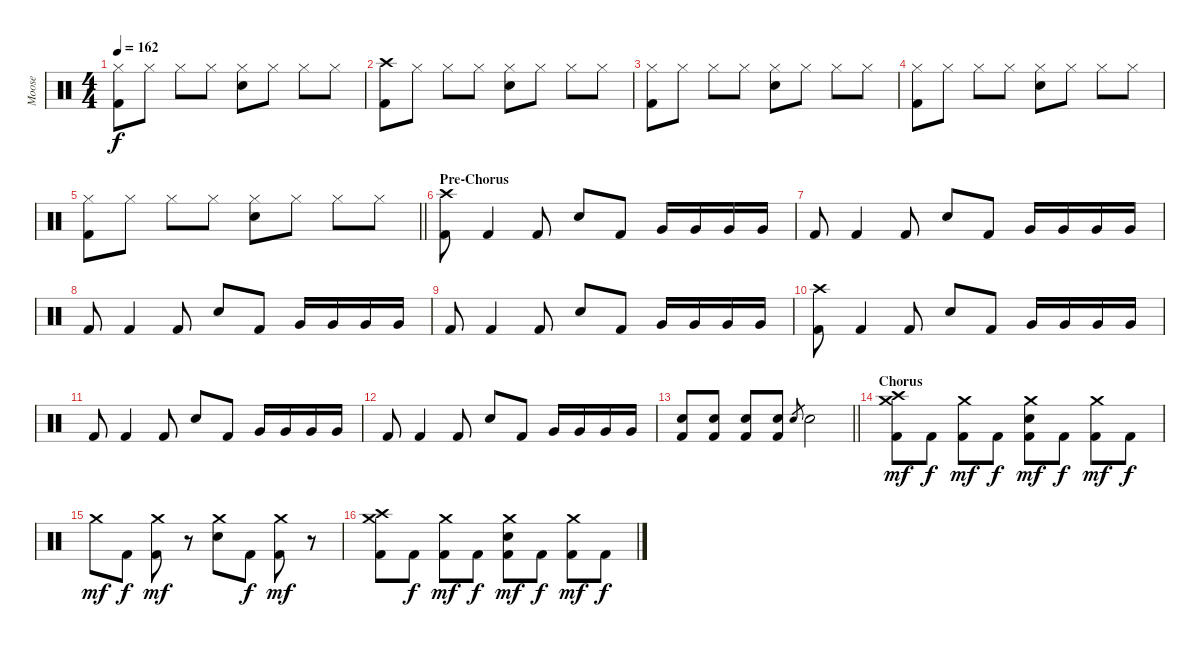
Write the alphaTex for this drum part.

\track ("Moose" "Moose") {instrument percussion}
\staff {score}
\articulation defaults
\ts (4 4)
\tempo 162
\clef neutral
\ks c
("Hi-Hat (closed)" "Kick (hit) 2").8{dy f} "Hi-Hat (closed)".8 "Hi-Hat (closed)".8 "Hi-Hat (closed)".8 ("Hi-Hat (closed)" "Snare (hit) 2").8 "Hi-Hat (closed)".8 "Hi-Hat (closed)".8 "Hi-Hat (closed)".8 |
("Crash high (hit)" "Kick (hit) 2").8 "Hi-Hat (closed)".8 "Hi-Hat (closed)".8 "Hi-Hat (closed)".8 ("Hi-Hat (closed)" "Snare (hit) 2").8 "Hi-Hat (closed)".8 "Hi-Hat (closed)".8 "Hi-Hat (closed)".8 |
("Hi-Hat (closed)" "Kick (hit) 2").8 "Hi-Hat (closed)".8 "Hi-Hat (closed)".8 "Hi-Hat (closed)".8 ("Hi-Hat (closed)" "Snare (hit) 2").8 "Hi-Hat (closed)".8 "Hi-Hat (closed)".8 "Hi-Hat (closed)".8 |
("Hi-Hat (closed)" "Kick (hit) 2").8 "Hi-Hat (closed)".8 "Hi-Hat (closed)".8 "Hi-Hat (closed)".8 ("Hi-Hat (closed)" "Snare (hit) 2").8 "Hi-Hat (closed)".8 "Hi-Hat (closed)".8 "Hi-Hat (closed)".8 |
\barLineRight lightlight
("Hi-Hat (closed)" "Kick (hit) 2").8 "Hi-Hat (closed)".8 "Hi-Hat (closed)".8 "Hi-Hat (closed)".8 ("Hi-Hat (closed)" "Snare (hit) 2").8 "Hi-Hat (closed)".8 "Hi-Hat (closed)".8 "Hi-Hat (closed)".8 |
\section ("" "Pre-Chorus")
("Crash high (hit)" "Kick (hit) 2").8 "Kick (hit) 2".4 "Kick (hit) 2".8 "Snare (hit) 2".8 "Kick (hit) 2".8 "Very Low Tom (hit)".16 "Very Low Tom (hit)".16 "Very Low Tom (hit)".16 "Very Low Tom (hit)".16 |
"Kick (hit) 2".8 "Kick (hit) 2".4 "Kick (hit) 2".8 "Snare (hit) 2".8 "Kick (hit) 2".8 "Very Low Tom (hit)".16 "Very Low Tom (hit)".16 "Very Low Tom (hit)".16 "Very Low Tom (hit)".16 |
"Kick (hit) 2".8 "Kick (hit) 2".4 "Kick (hit) 2".8 "Snare (hit) 2".8 "Kick (hit) 2".8 "Very Low Tom (hit)".16 "Very Low Tom (hit)".16 "Very Low Tom (hit)".16 "Very Low Tom (hit)".16 |
"Kick (hit) 2".8 "Kick (hit) 2".4 "Kick (hit) 2".8 "Snare (hit) 2".8 "Kick (hit) 2".8 "Very Low Tom (hit)".16 "Very Low Tom (hit)".16 "Very Low Tom (hit)".16 "Very Low Tom (hit)".16 |
("Crash high (hit)" "Kick (hit) 2").8 "Kick (hit) 2".4 "Kick (hit) 2".8 "Snare (hit) 2".8 "Kick (hit) 2".8 "Very Low Tom (hit)".16 "Very Low Tom (hit)".16 "Very Low Tom (hit)".16 "Very Low Tom (hit)".16 |
"Kick (hit) 2".8 "Kick (hit) 2".4 "Kick (hit) 2".8 "Snare (hit) 2".8 "Kick (hit) 2".8 "Very Low Tom (hit)".16 "Very Low Tom (hit)".16 "Very Low Tom (hit)".16 "Very Low Tom (hit)".16 |
"Kick (hit) 2".8 "Kick (hit) 2".4 "Kick (hit) 2".8 "Snare (hit) 2".8 "Kick (hit) 2".8 "Very Low Tom (hit)".16 "Very Low Tom (hit)".16 "Very Low Tom (hit)".16 "Very Low Tom (hit)".16 |
\barLineRight lightlight
("Snare (hit) 2" "Kick (hit) 2").8 ("Snare (hit) 2" "Kick (hit) 2").8 ("Snare (hit) 2" "Kick (hit) 2").8 ("Snare (hit) 2" "Kick (hit) 2").8 "Snare (hit) 2".8{gr} "Snare (hit) 2".2 |
\section ("" "Chorus")
("Kick (hit) 2" "Crash high (hit)" "Crash medium (hit)").8{dy mf} "Kick (hit) 2".8{dy f} ("Kick (hit) 2" "Crash medium (hit)").8{dy mf} "Kick (hit) 2".8{dy f} ("Kick (hit) 2" "Snare (hit) 2" "Crash medium (hit)").8{dy mf} "Kick (hit) 2".8{dy f} ("Kick (hit) 2" "Crash medium (hit)").8{dy mf} "Kick (hit) 2".8{dy f} |
"Crash medium (hit)".8{dy mf} "Kick (hit) 2".8{dy f} ("Kick (hit) 2" "Crash medium (hit)").8{dy mf} r.8 ("Snare (hit) 2" "Crash medium (hit)").8 "Kick (hit) 2".8{dy f} ("Kick (hit) 2" "Crash medium (hit)").8{dy mf} r.8 |
("Kick (hit) 2" "Crash high (hit)" "Crash medium (hit)").8 "Kick (hit) 2".8{dy f} ("Kick (hit) 2" "Crash medium (hit)").8{dy mf} "Kick (hit) 2".8{dy f} ("Kick (hit) 2" "Snare (hit) 2" "Crash medium (hit)").8{dy mf} "Kick (hit) 2".8{dy f} ("Kick (hit) 2" "Crash medium (hit)").8{dy mf} "Kick (hit) 2".8{dy f}
